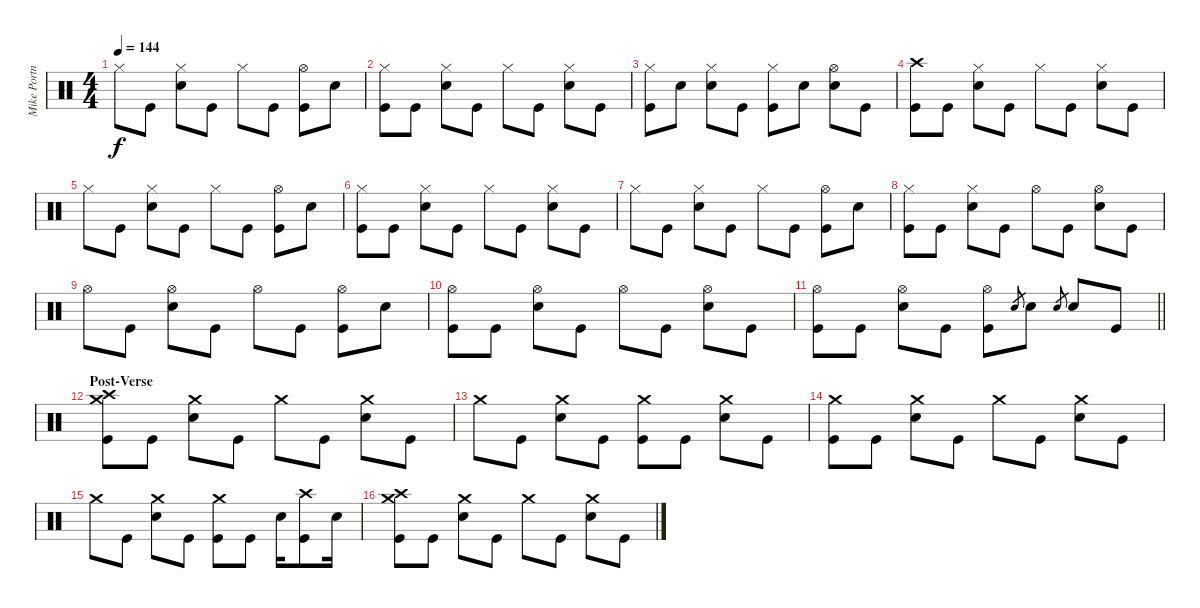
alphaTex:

\track ("Mike Portnoy" "Mike Portn") {instrument percussion}
\staff {score}
\articulation defaults
\ts (4 4)
\tempo 144
\clef neutral
\ks c "Hi-Hat (closed)".8{dy f} "Kick (hit)".8
("Hi-Hat (closed)" "Electric Snare (hit)").8 "Kick (hit)".8 "Hi-Hat (closed)".8 "Kick (hit)".8 ("Hi-Hat (open)" "Kick (hit)").8 "Electric Snare (hit)".8 |
("Hi-Hat (closed)" "Kick (hit)").8 "Kick (hit)".8 ("Hi-Hat (closed)" "Electric Snare (hit)").8 "Kick (hit)".8 "Hi-Hat (closed)".8 "Kick (hit)".8 ("Hi-Hat (closed)" "Electric Snare (hit)").8 "Kick (hit)".8 |
("Hi-Hat (closed)" "Kick (hit)").8 "Electric Snare (hit)".8 ("Hi-Hat (closed)" "Electric Snare (hit)").8 "Kick (hit)".8 ("Hi-Hat (closed)" "Kick (hit)").8 "Electric Snare (hit)".8 ("Hi-Hat (open)" "Electric Snare (hit)").8 "Kick (hit)".8 |
("Crash high (hit)" "Kick (hit)").8 "Kick (hit)".8 ("Hi-Hat (closed)" "Electric Snare (hit)").8 "Kick (hit)".8 "Hi-Hat (closed)".8 "Kick (hit)".8 ("Hi-Hat (closed)" "Electric Snare (hit)").8 "Kick (hit)".8 |
"Hi-Hat (closed)".8 "Kick (hit)".8 ("Hi-Hat (closed)" "Electric Snare (hit)").8 "Kick (hit)".8 "Hi-Hat (closed)".8 "Kick (hit)".8 ("Hi-Hat (open)" "Kick (hit)").8 "Electric Snare (hit)".8 |
("Hi-Hat (closed)" "Kick (hit)").8 "Kick (hit)".8 ("Hi-Hat (closed)" "Electric Snare (hit)").8 "Kick (hit)".8 "Hi-Hat (closed)".8 "Kick (hit)".8 ("Hi-Hat (closed)" "Electric Snare (hit)").8 "Kick (hit)".8 |
"Hi-Hat (closed)".8 "Kick (hit)".8 ("Hi-Hat (closed)" "Electric Snare (hit)").8 "Kick (hit)".8 "Hi-Hat (closed)".8 "Kick (hit)".8 ("Hi-Hat (open)" "Kick (hit)").8 "Electric Snare (hit)".8 |
("Hi-Hat (closed)" "Kick (hit)").8 "Kick (hit)".8 ("Hi-Hat (closed)" "Electric Snare (hit)").8 "Kick (hit)".8 "Hi-Hat (open)".8 "Kick (hit)".8 ("Hi-Hat (open)" "Electric Snare (hit)").8 "Kick (hit)".8 |
"Hi-Hat (open)".8 "Kick (hit)".8 ("Hi-Hat (open)" "Electric Snare (hit)").8 "Kick (hit)".8 "Hi-Hat (open)".8 "Kick (hit)".8 ("Hi-Hat (open)" "Kick (hit)").8 "Electric Snare (hit)".8 |
("Hi-Hat (open)" "Kick (hit)").8 "Kick (hit)".8 ("Hi-Hat (open)" "Electric Snare (hit)").8 "Kick (hit)".8 "Hi-Hat (open)".8 "Kick (hit)".8 ("Hi-Hat (open)" "Electric Snare (hit)").8 "Kick (hit)".8 |
\barLineRight lightlight
("Hi-Hat (open)" "Kick (hit)").8 "Kick (hit)".8 ("Hi-Hat (open)" "Electric Snare (hit)").8 "Kick (hit)".8 ("Hi-Hat (open)" "Kick (hit)").8 "Electric Snare (hit)".8{gr} "Electric Snare (hit)".8 "Electric Snare (hit)".8{gr} "Electric Snare (hit)".8 "Kick (hit)".8 |
\section ("" "Post-Verse")
("Crash high (hit)" "Crash medium (hit)" "Kick (hit)").8 "Kick (hit)".8 ("Crash medium (hit)" "Electric Snare (hit)").8 "Kick (hit)".8 "Crash medium (hit)".8 "Kick (hit)".8 ("Crash medium (hit)" "Electric Snare (hit)").8 "Kick (hit)".8 |
"Crash medium (hit)".8 "Kick (hit)".8 ("Crash medium (hit)" "Electric Snare (hit)").8 "Kick (hit)".8 ("Crash medium (hit)" "Kick (hit)").8 "Kick (hit)".8 ("Crash medium (hit)" "Electric Snare (hit)").8 "Kick (hit)".8 |
("Crash medium (hit)" "Kick (hit)").8 "Kick (hit)".8 ("Crash medium (hit)" "Electric Snare (hit)").8 "Kick (hit)".8 "Crash medium (hit)".8 "Kick (hit)".8 ("Crash medium (hit)" "Electric Snare (hit)").8 "Kick (hit)".8 |
"Crash medium (hit)".8 "Kick (hit)".8 ("Crash medium (hit)" "Electric Snare (hit)").8 "Kick (hit)".8 ("Crash medium (hit)" "Kick (hit)").8 "Kick (hit)".8 "Electric Snare (hit)".16 ("Crash high (hit)" "Kick (hit)").8 "Electric Snare (hit)".16 |
("Crash high (hit)" "Crash medium (hit)" "Kick (hit)").8 "Kick (hit)".8 ("Crash medium (hit)" "Electric Snare (hit)").8 "Kick (hit)".8 "Crash medium (hit)".8 "Kick (hit)".8 ("Crash medium (hit)" "Electric Snare (hit)").8 "Kick (hit)".8
